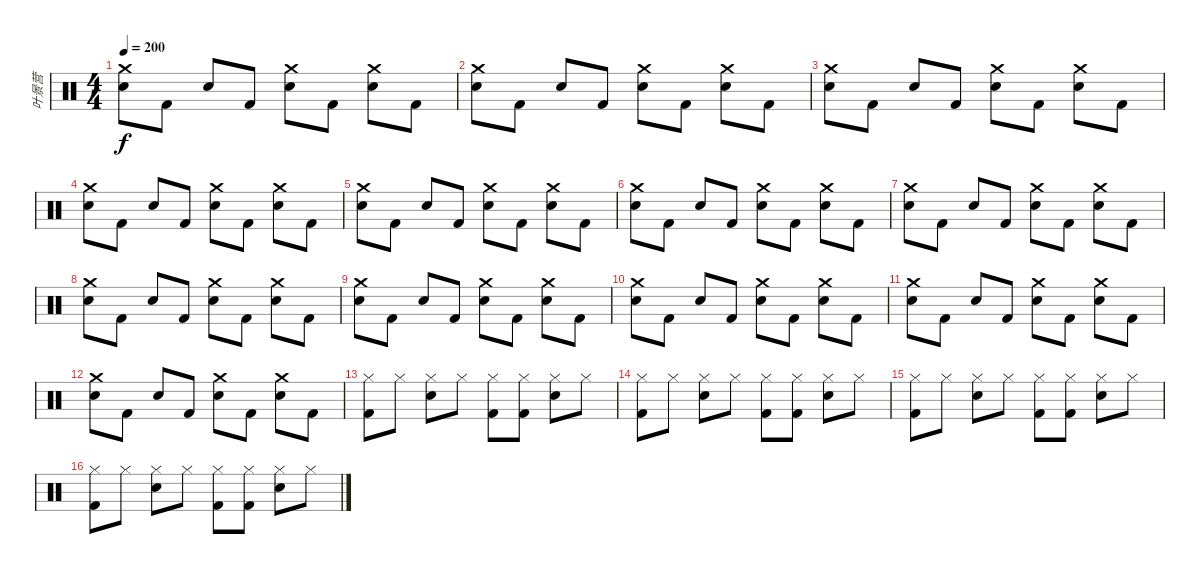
\track ("叶景营" "叶景营") {instrument percussion}
\staff {score}
\articulation defaults
\ts (4 4)
\tempo 200
\clef neutral
\ks c
("Crash medium (hit)" "Electric Snare (hit)").8{dy f} "Kick (hit) 2".8 "Electric Snare (hit)".8 "Kick (hit) 2".8 ("Crash medium (hit)" "Electric Snare (hit)").8 "Kick (hit) 2".8 ("Crash medium (hit)" "Electric Snare (hit)").8 "Kick (hit) 2".8 |
("Crash medium (hit)" "Electric Snare (hit)").8 "Kick (hit) 2".8 "Electric Snare (hit)".8 "Kick (hit) 2".8 ("Crash medium (hit)" "Electric Snare (hit)").8 "Kick (hit) 2".8 ("Crash medium (hit)" "Electric Snare (hit)").8 "Kick (hit) 2".8 |
("Crash medium (hit)" "Electric Snare (hit)").8 "Kick (hit) 2".8 "Electric Snare (hit)".8 "Kick (hit) 2".8 ("Crash medium (hit)" "Electric Snare (hit)").8 "Kick (hit) 2".8 ("Crash medium (hit)" "Electric Snare (hit)").8 "Kick (hit) 2".8 |
("Crash medium (hit)" "Electric Snare (hit)").8 "Kick (hit) 2".8 "Electric Snare (hit)".8 "Kick (hit) 2".8 ("Crash medium (hit)" "Electric Snare (hit)").8 "Kick (hit) 2".8 ("Crash medium (hit)" "Electric Snare (hit)").8 "Kick (hit) 2".8 |
("Crash medium (hit)" "Electric Snare (hit)").8 "Kick (hit) 2".8 "Electric Snare (hit)".8 "Kick (hit) 2".8 ("Crash medium (hit)" "Electric Snare (hit)").8 "Kick (hit) 2".8 ("Crash medium (hit)" "Electric Snare (hit)").8 "Kick (hit) 2".8 |
("Crash medium (hit)" "Electric Snare (hit)").8 "Kick (hit) 2".8 "Electric Snare (hit)".8 "Kick (hit) 2".8 ("Crash medium (hit)" "Electric Snare (hit)").8 "Kick (hit) 2".8 ("Crash medium (hit)" "Electric Snare (hit)").8 "Kick (hit) 2".8 |
("Crash medium (hit)" "Electric Snare (hit)").8 "Kick (hit) 2".8 "Electric Snare (hit)".8 "Kick (hit) 2".8 ("Crash medium (hit)" "Electric Snare (hit)").8 "Kick (hit) 2".8 ("Crash medium (hit)" "Electric Snare (hit)").8 "Kick (hit) 2".8 |
("Crash medium (hit)" "Electric Snare (hit)").8 "Kick (hit) 2".8 "Electric Snare (hit)".8 "Kick (hit) 2".8 ("Crash medium (hit)" "Electric Snare (hit)").8 "Kick (hit) 2".8 ("Crash medium (hit)" "Electric Snare (hit)").8 "Kick (hit) 2".8 |
("Crash medium (hit)" "Electric Snare (hit)").8 "Kick (hit) 2".8 "Electric Snare (hit)".8 "Kick (hit) 2".8 ("Crash medium (hit)" "Electric Snare (hit)").8 "Kick (hit) 2".8 ("Crash medium (hit)" "Electric Snare (hit)").8 "Kick (hit) 2".8 |
("Crash medium (hit)" "Electric Snare (hit)").8 "Kick (hit) 2".8 "Electric Snare (hit)".8 "Kick (hit) 2".8 ("Crash medium (hit)" "Electric Snare (hit)").8 "Kick (hit) 2".8 ("Crash medium (hit)" "Electric Snare (hit)").8 "Kick (hit) 2".8 |
("Crash medium (hit)" "Electric Snare (hit)").8 "Kick (hit) 2".8 "Electric Snare (hit)".8 "Kick (hit) 2".8 ("Crash medium (hit)" "Electric Snare (hit)").8 "Kick (hit) 2".8 ("Crash medium (hit)" "Electric Snare (hit)").8 "Kick (hit) 2".8 |
("Crash medium (hit)" "Electric Snare (hit)").8 "Kick (hit) 2".8 "Electric Snare (hit)".8 "Kick (hit) 2".8 ("Crash medium (hit)" "Electric Snare (hit)").8 "Kick (hit) 2".8 ("Crash medium (hit)" "Electric Snare (hit)").8 "Kick (hit) 2".8 |
("Hi-Hat (closed)" "Kick (hit) 2").8 "Hi-Hat (closed)".8 ("Hi-Hat (closed)" "Electric Snare (hit)").8 "Hi-Hat (closed)".8 ("Hi-Hat (closed)" "Kick (hit) 2").8 ("Hi-Hat (closed)" "Kick (hit) 2").8 ("Hi-Hat (closed)" "Electric Snare (hit)").8 "Hi-Hat (closed)".8 |
("Hi-Hat (closed)" "Kick (hit) 2").8 "Hi-Hat (closed)".8 ("Hi-Hat (closed)" "Electric Snare (hit)").8 "Hi-Hat (closed)".8 ("Hi-Hat (closed)" "Kick (hit) 2").8 ("Hi-Hat (closed)" "Kick (hit) 2").8 ("Hi-Hat (closed)" "Electric Snare (hit)").8 "Hi-Hat (closed)".8 |
("Hi-Hat (closed)" "Kick (hit) 2").8 "Hi-Hat (closed)".8 ("Hi-Hat (closed)" "Electric Snare (hit)").8 "Hi-Hat (closed)".8 ("Hi-Hat (closed)" "Kick (hit) 2").8 ("Hi-Hat (closed)" "Kick (hit) 2").8 ("Hi-Hat (closed)" "Electric Snare (hit)").8 "Hi-Hat (closed)".8 |
("Hi-Hat (closed)" "Kick (hit) 2").8 "Hi-Hat (closed)".8 ("Hi-Hat (closed)" "Electric Snare (hit)").8 "Hi-Hat (closed)".8 ("Hi-Hat (closed)" "Kick (hit) 2").8 ("Hi-Hat (closed)" "Kick (hit) 2").8 ("Hi-Hat (closed)" "Electric Snare (hit)").8 "Hi-Hat (closed)".8
